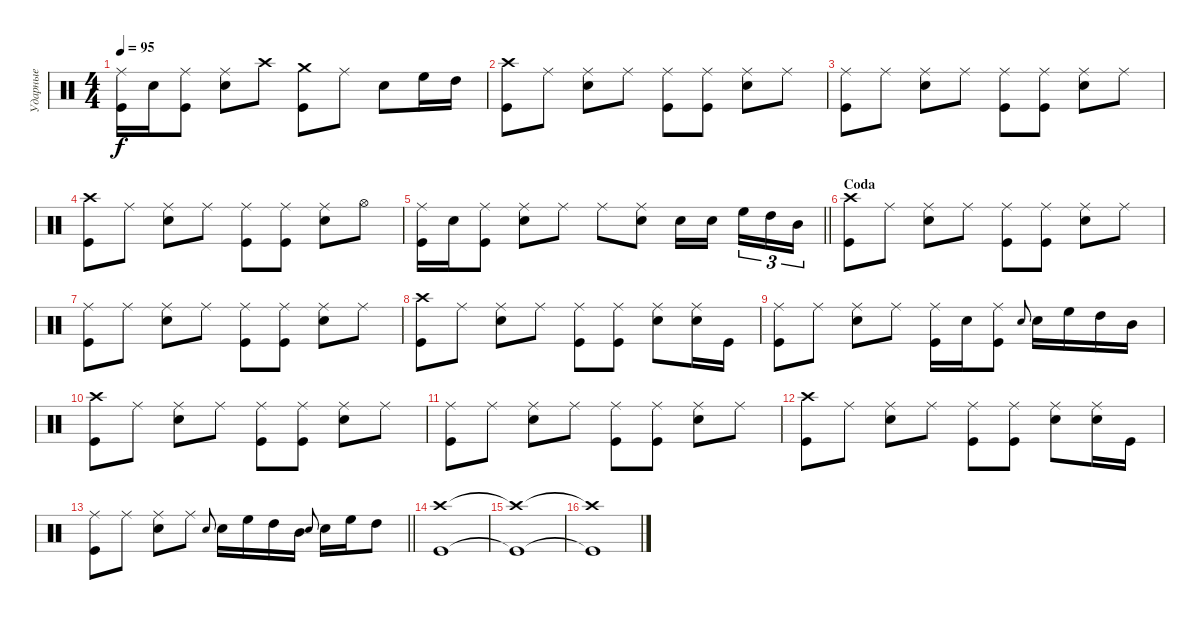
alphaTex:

\track ("Ударные" "Ударные") {instrument percussion}
\staff {score}
\articulation defaults
\ts (4 4)
\tempo 95
\clef neutral
\ks c
("Ride (middle)" "Kick (hit)").16{dy f} "Snare (hit) 2".16 ("Ride (middle)" "Kick (hit)").8 ("Ride (middle)" "Snare (hit) 2").8 "Crash high (hit)".8 ("Crash medium (hit)" "Kick (hit)").8 "Ride (middle)".8 "Snare (hit) 2".8 "High Floor Tom (hit)".16 "High Tom (hit)".16 |
("Crash high (hit)" "Kick (hit)").8 "Ride (middle)".8 ("Ride (middle)" "Snare (hit) 2").8 "Ride (middle)".8 ("Ride (middle)" "Kick (hit)").8 ("Ride (middle)" "Kick (hit)").8 ("Ride (middle)" "Snare (hit) 2").8 "Ride (middle)".8 |
("Ride (middle)" "Kick (hit)").8 "Ride (middle)".8 ("Ride (middle)" "Snare (hit) 2").8 "Ride (middle)".8 ("Ride (middle)" "Kick (hit)").8 ("Ride (middle)" "Kick (hit)").8 ("Ride (middle)" "Snare (hit) 2").8 "Ride (middle)".8 |
("Crash high (hit)" "Kick (hit)").8 "Ride (middle)".8 ("Ride (middle)" "Snare (hit) 2").8 "Ride (middle)".8 ("Ride (middle)" "Kick (hit)").8 ("Ride (middle)" "Kick (hit)").8 ("Ride (middle)" "Snare (hit) 2").8 "Hi-Hat (open)".8 |
\barLineRight lightlight
("Ride (middle)" "Kick (hit)").16 "Snare (hit) 2".16 ("Ride (middle)" "Kick (hit)").8 ("Ride (middle)" "Snare (hit) 2").8 "Ride (middle)".8 "Ride (middle)".8 ("Ride (middle)" "Snare (hit) 2").8 "Snare (hit) 2".16 "Snare (hit) 2".16{beam splitsecondary} "High Floor Tom (hit)".16{tu (3 2)} "High Tom (hit)".16{tu (3 2)} "Mid Tom (hit)".16{tu (3 2)} |
\section ("" "Coda")
("Crash high (hit)" "Kick (hit)").8 "Ride (middle)".8 ("Ride (middle)" "Snare (hit) 2").8 "Ride (middle)".8 ("Ride (middle)" "Kick (hit)").8 ("Ride (middle)" "Kick (hit)").8 ("Ride (middle)" "Snare (hit) 2").8 "Ride (middle)".8 |
("Ride (middle)" "Kick (hit)").8 "Ride (middle)".8 ("Ride (middle)" "Snare (hit) 2").8 "Ride (middle)".8 ("Ride (middle)" "Kick (hit)").8 ("Ride (middle)" "Kick (hit)").8 ("Ride (middle)" "Snare (hit) 2").8 "Ride (middle)".8 |
("Crash high (hit)" "Kick (hit)").8 "Ride (middle)".8 ("Ride (middle)" "Snare (hit) 2").8 "Ride (middle)".8 ("Ride (middle)" "Kick (hit)").8 ("Ride (middle)" "Kick (hit)").8 ("Ride (middle)" "Snare (hit) 2").8 ("Ride (middle)" "Snare (hit) 2").16 "Kick (hit)".16 |
("Ride (middle)" "Kick (hit)").8 "Ride (middle)".8 ("Ride (middle)" "Snare (hit) 2").8 "Ride (middle)".8 ("Ride (middle)" "Kick (hit)").16 "Snare (hit) 2".16 ("Ride (middle)" "Kick (hit)").8 "Snare (hit) 2".8{gr onbeat} "Snare (hit) 2".16 "High Floor Tom (hit)".16 "High Tom (hit)".16 "Mid Tom (hit)".16 |
("Crash high (hit)" "Kick (hit)").8 "Ride (middle)".8 ("Ride (middle)" "Snare (hit) 2").8 "Ride (middle)".8 ("Ride (middle)" "Kick (hit)").8 ("Ride (middle)" "Kick (hit)").8 ("Ride (middle)" "Snare (hit) 2").8 "Ride (middle)".8 |
("Ride (middle)" "Kick (hit)").8 "Ride (middle)".8 ("Ride (middle)" "Snare (hit) 2").8 "Ride (middle)".8 ("Ride (middle)" "Kick (hit)").8 ("Ride (middle)" "Kick (hit)").8 ("Ride (middle)" "Snare (hit) 2").8 "Ride (middle)".8 |
("Crash high (hit)" "Kick (hit)").8 "Ride (middle)".8 ("Ride (middle)" "Snare (hit) 2").8 "Ride (middle)".8 ("Ride (middle)" "Kick (hit)").8 ("Ride (middle)" "Kick (hit)").8 ("Ride (middle)" "Snare (hit) 2").8 ("Ride (middle)" "Snare (hit) 2").16 "Kick (hit)".16 |
\barLineRight lightlight
("Ride (middle)" "Kick (hit)").8 "Ride (middle)".8 ("Ride (middle)" "Snare (hit) 2").8 "Ride (middle)".8 "Snare (hit) 2".8{gr onbeat} "Snare (hit) 2".16 "High Floor Tom (hit)".16 "High Tom (hit)".16 "Mid Tom (hit)".16 "Snare (hit) 2".8{gr onbeat} "Snare (hit) 2".16 "High Floor Tom (hit)".16 "High Tom (hit)".8 |
("Crash high (hit)" "Kick (hit)").1 |
("Crash high (hit)"{t} "Kick (hit)"{t}).1{volume 0} |
("Crash high (hit)"{t} "Kick (hit)"{t}).1
